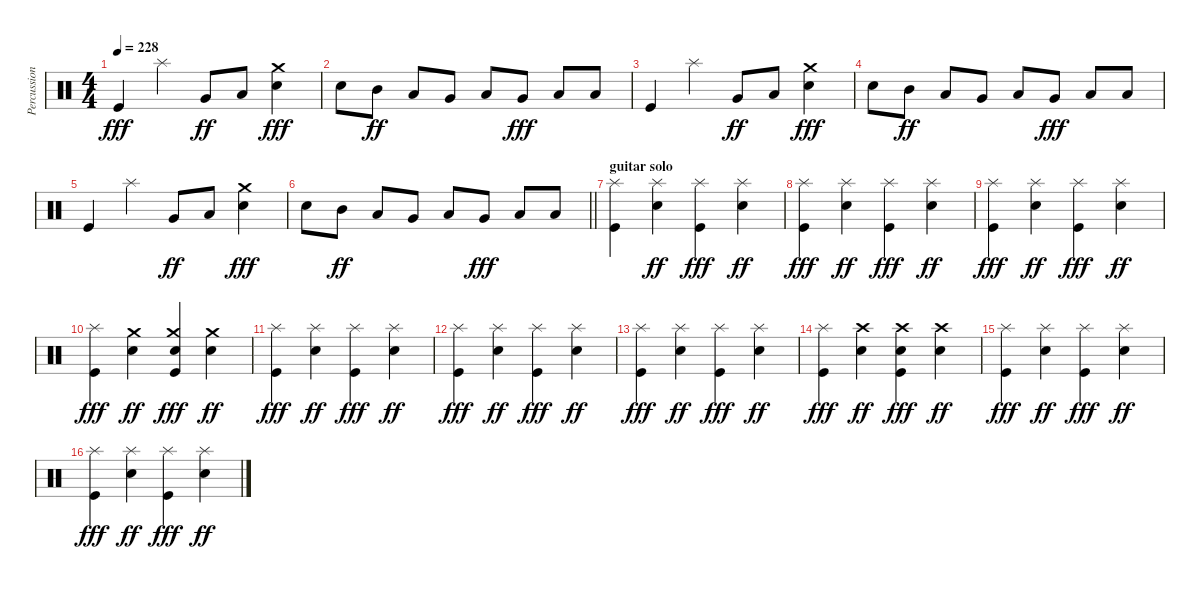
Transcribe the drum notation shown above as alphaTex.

\track ("Percussion" "Percussion") {instrument percussion}
\staff {score}
\articulation defaults
\ts (4 4)
\tempo 228
\clef neutral
\ks c "Kick (hit)".4{dy fff} "Splash (hit)".4 "Very Low Tom (hit)".8{dy ff} "Low Floor Tom (hit)".8
("Crash medium (hit)" "Electric Snare (hit)").4{dy fff} |
"Snare (hit) 2".8 "Mid Tom (hit)".8{dy ff} "Low Tom (hit)".8 "Very Low Tom (hit)".8 "Low Tom (hit)".8 "Very Low Tom (hit)".8{dy fff} "Low Floor Tom (hit)".8 "Low Floor Tom (hit)".8 |
"Kick (hit)".4 "Splash (hit)".4 "Very Low Tom (hit)".8{dy ff} "Low Floor Tom (hit)".8 ("Crash medium (hit)" "Electric Snare (hit)").4{dy fff} |
"Snare (hit) 2".8 "Mid Tom (hit)".8{dy ff} "Low Tom (hit)".8 "Very Low Tom (hit)".8 "Low Tom (hit)".8 "Very Low Tom (hit)".8{dy fff} "Low Floor Tom (hit)".8 "Low Floor Tom (hit)".8 |
"Kick (hit)".4 "Splash (hit)".4 "Very Low Tom (hit)".8{dy ff} "Low Floor Tom (hit)".8 ("Crash medium (hit)" "Electric Snare (hit)").4{dy fff} |
\barLineRight lightlight "Snare (hit) 2".8 "Mid Tom (hit)".8{dy ff} "Low Tom (hit)".8 "Very Low Tom (hit)".8 "Low Tom (hit)".8 "Very Low Tom (hit)".8{dy fff} "Low Floor Tom (hit)".8 "Low Floor Tom (hit)".8
|
\section ("" "guitar solo")
("Splash (hit)" "Kick (hit)").4 ("Splash (hit)" "Electric Snare (hit)").4{dy ff} ("Splash (hit)" "Kick (hit)").4{dy fff} ("Splash (hit)" "Electric Snare (hit)").4{dy ff} |
("Splash (hit)" "Kick (hit)").4{dy fff} ("Splash (hit)" "Electric Snare (hit)").4{dy ff} ("Splash (hit)" "Kick (hit)").4{dy fff} ("Splash (hit)" "Electric Snare (hit)").4{dy ff} |
("Splash (hit)" "Kick (hit)").4{dy fff} ("Splash (hit)" "Electric Snare (hit)").4{dy ff} ("Splash (hit)" "Kick (hit)").4{dy fff} ("Splash (hit)" "Electric Snare (hit)").4{dy ff} |
("Splash (hit)" "Kick (hit)").4{dy fff} ("Crash medium (hit)" "Electric Snare (hit)").4{dy ff} ("Crash medium (hit)" "Electric Snare (hit)" "Kick (hit)").4{dy fff} ("Crash medium (hit)" "Electric Snare (hit)").4{dy ff} |
("Splash (hit)" "Kick (hit)").4{dy fff} ("Splash (hit)" "Electric Snare (hit)").4{dy ff} ("Splash (hit)" "Kick (hit)").4{dy fff} ("Splash (hit)" "Electric Snare (hit)").4{dy ff} |
("Splash (hit)" "Kick (hit)").4{dy fff} ("Splash (hit)" "Electric Snare (hit)").4{dy ff} ("Splash (hit)" "Kick (hit)").4{dy fff} ("Splash (hit)" "Electric Snare (hit)").4{dy ff} |
("Splash (hit)" "Kick (hit)").4{dy fff} ("Splash (hit)" "Electric Snare (hit)").4{dy ff} ("Splash (hit)" "Kick (hit)").4{dy fff} ("Splash (hit)" "Electric Snare (hit)").4{dy ff} |
("Splash (hit)" "Kick (hit)").4{dy fff} ("Crash high (hit)" "Electric Snare (hit)").4{dy ff} ("Crash high (hit)" "Electric Snare (hit)" "Kick (hit)").4{dy fff} ("Crash high (hit)" "Electric Snare (hit)").4{dy ff} |
("Splash (hit)" "Kick (hit)").4{dy fff} ("Splash (hit)" "Electric Snare (hit)").4{dy ff} ("Splash (hit)" "Kick (hit)").4{dy fff} ("Splash (hit)" "Electric Snare (hit)").4{dy ff} |
("Splash (hit)" "Kick (hit)").4{dy fff} ("Splash (hit)" "Electric Snare (hit)").4{dy ff} ("Splash (hit)" "Kick (hit)").4{dy fff} ("Splash (hit)" "Electric Snare (hit)").4{dy ff}
